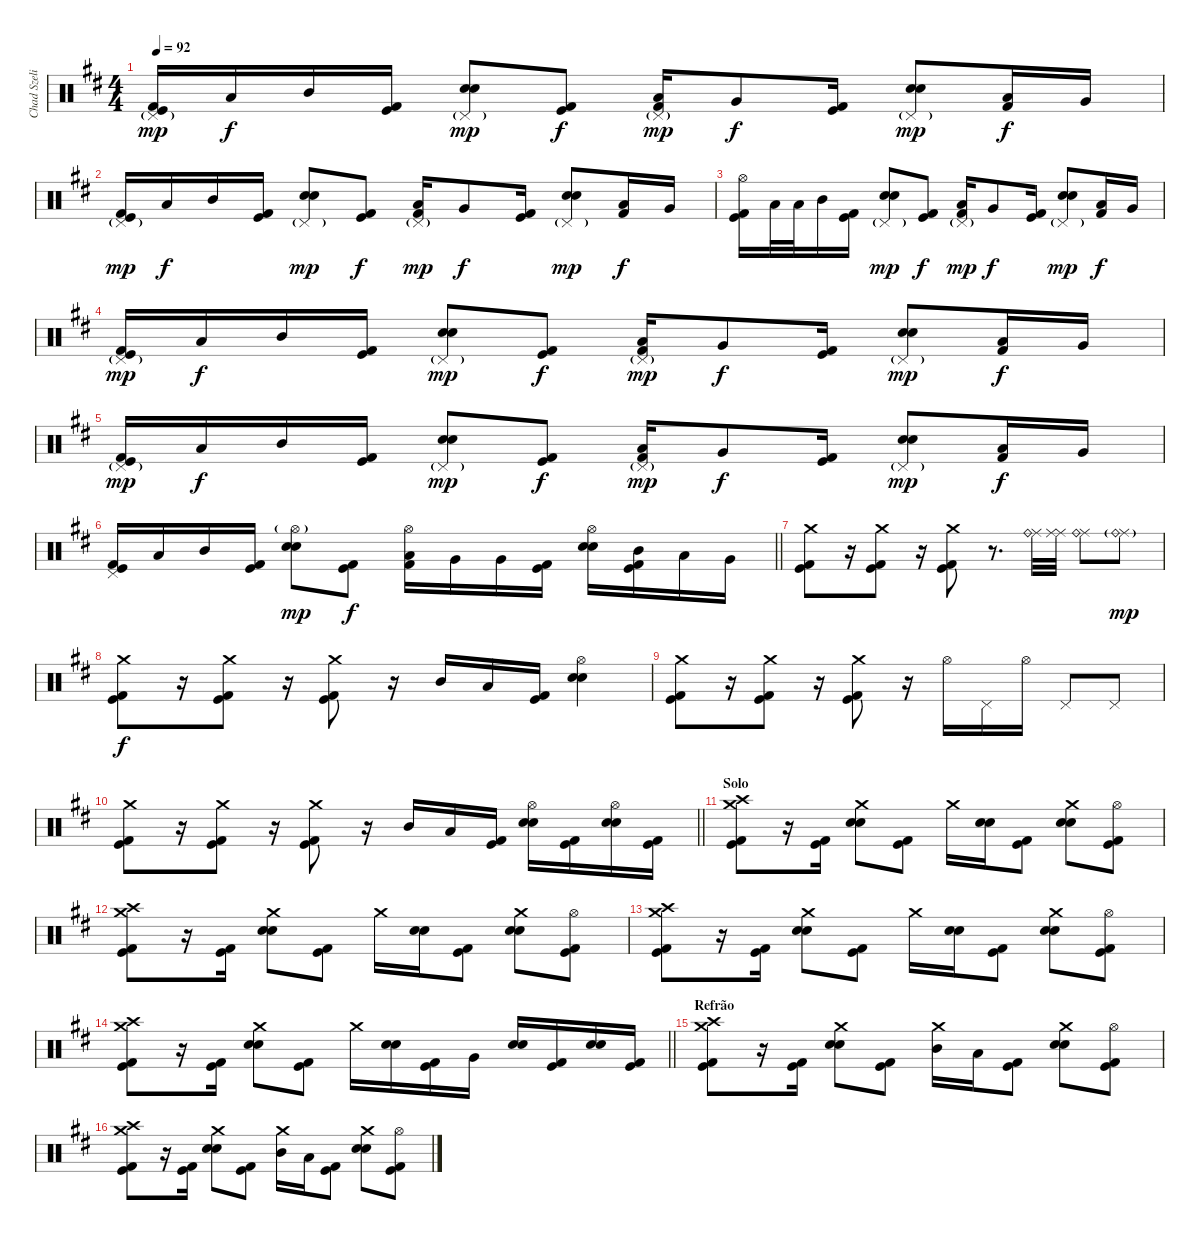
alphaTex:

\track ("Chad Szeliga" "Chad Szeli") {instrument percussion}
\staff {score}
\articulation defaults
\ts (4 4)
\tempo 92
\clef neutral
\ks d
("Kick (hit) 2" "Kick (hit)" "Pedal Hi-Hat (hit)"{g}).16{dy mp} "Low Tom (hit)".16{dy f} "Mid Tom (hit)".16 ("Kick (hit) 2" "Kick (hit)").16 ("Snare (hit) 2" "Snare (hit) 2" "Pedal Hi-Hat (hit)"{g}).8{dy mp} ("Kick (hit) 2" "Kick (hit)").8{dy f} ("Kick (hit) 2" "Low Tom (hit)" "Pedal Hi-Hat (hit)"{g}).16{dy mp} "Very Low Tom (hit)".8{dy f} ("Kick (hit) 2" "Kick (hit)").16 ("Snare (hit) 2" "Snare (hit) 2" "Pedal Hi-Hat (hit)"{g}).8{dy mp} ("Kick (hit) 2" "Low Tom (hit)").16{dy f} "Very Low Tom (hit)".16 |
("Kick (hit) 2" "Kick (hit)" "Pedal Hi-Hat (hit)"{g}).16{dy mp} "Low Tom (hit)".16{dy f} "Mid Tom (hit)".16 ("Kick (hit) 2" "Kick (hit)").16 ("Snare (hit) 2" "Snare (hit) 2" "Pedal Hi-Hat (hit)"{g}).8{dy mp} ("Kick (hit) 2" "Kick (hit)").8{dy f} ("Kick (hit) 2" "Low Tom (hit)" "Pedal Hi-Hat (hit)"{g}).16{dy mp} "Very Low Tom (hit)".8{dy f} ("Kick (hit) 2" "Kick (hit)").16 ("Snare (hit) 2" "Snare (hit) 2" "Pedal Hi-Hat (hit)"{g}).8{dy mp} ("Kick (hit) 2" "Low Tom (hit)").16{dy f} "Very Low Tom (hit)".16 |
("Kick (hit) 2" "Kick (hit)" "Hi-Hat (open)").16 "Low Tom (hit)".32 "Low Tom (hit)".32 "Mid Tom (hit)".16 ("Kick (hit) 2" "Kick (hit)").16 ("Snare (hit) 2" "Snare (hit) 2" "Pedal Hi-Hat (hit)"{g}).8{dy mp} ("Kick (hit) 2" "Kick (hit)").8{dy f} ("Kick (hit) 2" "Low Tom (hit)" "Pedal Hi-Hat (hit)"{g}).16{dy mp} "Very Low Tom (hit)".8{dy f} ("Kick (hit) 2" "Kick (hit)").16 ("Snare (hit) 2" "Snare (hit) 2" "Pedal Hi-Hat (hit)"{g}).8{dy mp} ("Kick (hit) 2" "Low Tom (hit)").16{dy f} "Very Low Tom (hit)".16 |
("Kick (hit) 2" "Kick (hit)" "Pedal Hi-Hat (hit)"{g}).16{dy mp} "Low Tom (hit)".16{dy f} "Mid Tom (hit)".16 ("Kick (hit) 2" "Kick (hit)").16 ("Snare (hit) 2" "Snare (hit) 2" "Pedal Hi-Hat (hit)"{g}).8{dy mp} ("Kick (hit) 2" "Kick (hit)").8{dy f} ("Kick (hit) 2" "Low Tom (hit)" "Pedal Hi-Hat (hit)"{g}).16{dy mp} "Very Low Tom (hit)".8{dy f} ("Kick (hit) 2" "Kick (hit)").16 ("Snare (hit) 2" "Snare (hit) 2" "Pedal Hi-Hat (hit)"{g}).8{dy mp} ("Kick (hit) 2" "Low Tom (hit)").16{dy f} "Very Low Tom (hit)".16 |
("Kick (hit) 2" "Kick (hit)" "Pedal Hi-Hat (hit)"{g}).16{dy mp} "Low Tom (hit)".16{dy f} "Mid Tom (hit)".16 ("Kick (hit) 2" "Kick (hit)").16 ("Snare (hit) 2" "Snare (hit) 2" "Pedal Hi-Hat (hit)"{g}).8{dy mp} ("Kick (hit) 2" "Kick (hit)").8{dy f} ("Kick (hit) 2" "Low Tom (hit)" "Pedal Hi-Hat (hit)"{g}).16{dy mp} "Very Low Tom (hit)".8{dy f} ("Kick (hit) 2" "Kick (hit)").16 ("Snare (hit) 2" "Snare (hit) 2" "Pedal Hi-Hat (hit)"{g}).8{dy mp} ("Kick (hit) 2" "Low Tom (hit)").16{dy f} "Very Low Tom (hit)".16 |
\barLineRight lightlight
("Kick (hit) 2" "Kick (hit)" "Pedal Hi-Hat (hit)").16 "Low Tom (hit)".16 "Mid Tom (hit)".16 ("Kick (hit) 2" "Kick (hit)").16 ("Snare (hit) 2" "Snare (hit) 2" "Hi-Hat (open)"{g}).8{dy mp} ("Kick (hit) 2" "Kick (hit)").8{dy f} ("Kick (hit) 2" "Low Tom (hit)" "Hi-Hat (open)").16 "Very Low Tom (hit)".16 "Very Low Tom (hit)".16 ("Kick (hit) 2" "Kick (hit)").16 ("Snare (hit) 2" "Snare (hit) 2" "Hi-Hat (open)").16 ("Kick (hit) 2" "Kick (hit)" "Mid Tom (hit)").16 "Low Tom (hit)".16 "Very Low Tom (hit)".16 |
("Crash medium (hit)" "Kick (hit) 2" "Kick (hit)").8 r.16 ("Crash medium (hit)" "Kick (hit) 2" "Kick (hit)").8 r.16 ("Crash medium (hit)" "Kick (hit) 2" "Kick (hit)").8 r.8{d} ("Ride (middle)" "Ride (bell)").32 ("Ride (middle)" "Ride (middle)").32 ("Ride (middle)" "Ride (bell)").8 ("Ride (middle)" "Ride (bell)"{g}).8{dy mp} |
("Crash medium (hit)" "Kick (hit) 2" "Kick (hit)").8{dy f} r.16 ("Crash medium (hit)" "Kick (hit) 2" "Kick (hit)").8 r.16 ("Crash medium (hit)" "Kick (hit) 2" "Kick (hit)").8 r.16 "Mid Tom (hit)".16 "Low Tom (hit)".16 ("Kick (hit) 2" "Kick (hit)").16 ("Snare (hit) 2" "Snare (hit) 2" "Hi-Hat (open)").4 |
("Crash medium (hit)" "Kick (hit) 2" "Kick (hit)").8 r.16 ("Crash medium (hit)" "Kick (hit) 2" "Kick (hit)").8 r.16 ("Crash medium (hit)" "Kick (hit) 2" "Kick (hit)").8 r.16 "Hi-Hat (open)".16 "Pedal Hi-Hat (hit)".16 "Hi-Hat (open)".16 "Pedal Hi-Hat (hit)".8 "Pedal Hi-Hat (hit)".8 |
\barLineRight lightlight
("Crash medium (hit)" "Kick (hit) 2" "Kick (hit)").8 r.16 ("Crash medium (hit)" "Kick (hit) 2" "Kick (hit)").8 r.16 ("Crash medium (hit)" "Kick (hit) 2" "Kick (hit)").8 r.16 "Mid Tom (hit)".16 "Low Tom (hit)".16 ("Kick (hit) 2" "Kick (hit)").16 ("Snare (hit) 2" "Snare (hit) 2" "Hi-Hat (open)").16 ("Kick (hit) 2" "Kick (hit)").16 ("Snare (hit) 2" "Snare (hit) 2" "Hi-Hat (open)").16 ("Kick (hit) 2" "Kick (hit)").16 |
\section ("" "Solo")
("Crash high (hit)" "Kick (hit) 2" "Kick (hit)" "Crash medium (hit)").8 r.16 ("Kick (hit) 2" "Kick (hit)").16{beam Down} ("Crash medium (hit)" "Snare (hit) 2" "Snare (hit) 2").8 ("Kick (hit) 2" "Kick (hit)").8 "Crash medium (hit)".16 ("Snare (hit) 2" "Snare (hit) 2").16 ("Kick (hit) 2" "Kick (hit)").8 ("Crash medium (hit)" "Snare (hit) 2" "Snare (hit) 2").8 ("Kick (hit) 2" "Kick (hit)" "Hi-Hat (open)").8 |
("Crash high (hit)" "Kick (hit) 2" "Kick (hit)" "Crash medium (hit)").8 r.16 ("Kick (hit) 2" "Kick (hit)").16{beam Down} ("Crash medium (hit)" "Snare (hit) 2" "Snare (hit) 2").8 ("Kick (hit) 2" "Kick (hit)").8 "Crash medium (hit)".16 ("Snare (hit) 2" "Snare (hit) 2").16 ("Kick (hit) 2" "Kick (hit)").8 ("Crash medium (hit)" "Snare (hit) 2" "Snare (hit) 2").8 ("Kick (hit) 2" "Kick (hit)" "Hi-Hat (open)").8 |
("Crash high (hit)" "Kick (hit) 2" "Kick (hit)" "Crash medium (hit)").8 r.16 ("Kick (hit) 2" "Kick (hit)").16{beam Down} ("Crash medium (hit)" "Snare (hit) 2" "Snare (hit) 2").8 ("Kick (hit) 2" "Kick (hit)").8 "Crash medium (hit)".16 ("Snare (hit) 2" "Snare (hit) 2").16 ("Kick (hit) 2" "Kick (hit)").8 ("Crash medium (hit)" "Snare (hit) 2" "Snare (hit) 2").8 ("Kick (hit) 2" "Kick (hit)" "Hi-Hat (open)").8 |
\barLineRight lightlight
("Crash high (hit)" "Kick (hit) 2" "Kick (hit)" "Crash medium (hit)").8 r.16 ("Kick (hit) 2" "Kick (hit)").16{beam Down} ("Crash medium (hit)" "Snare (hit) 2" "Snare (hit) 2").8 ("Kick (hit) 2" "Kick (hit)").8 "Crash medium (hit)".16 ("Snare (hit) 2" "Snare (hit) 2").16 ("Kick (hit) 2" "Kick (hit)").16 "Very Low Tom (hit)".16 ("Snare (hit) 2" "Snare (hit) 2").16 ("Kick (hit) 2" "Kick (hit)").16 ("Snare (hit) 2" "Snare (hit) 2").16 ("Kick (hit) 2" "Kick (hit)").16 |
\section ("" "Refrão")
("Crash high (hit)" "Kick (hit) 2" "Kick (hit)" "Crash medium (hit)").8 r.16 ("Kick (hit) 2" "Kick (hit)").16{beam Down} ("Crash medium (hit)" "Snare (hit) 2" "Snare (hit) 2").8 ("Kick (hit) 2" "Kick (hit)").8 ("Crash medium (hit)" "Mid Tom (hit)").16 "Low Tom (hit)".16 ("Kick (hit) 2" "Kick (hit)").8 ("Crash medium (hit)" "Snare (hit) 2" "Snare (hit) 2").8 ("Kick (hit) 2" "Kick (hit)" "Hi-Hat (open)").8 |
("Crash high (hit)" "Kick (hit) 2" "Kick (hit)" "Crash medium (hit)").8 r.16 ("Kick (hit) 2" "Kick (hit)").16{beam Down} ("Crash medium (hit)" "Snare (hit) 2" "Snare (hit) 2").8 ("Kick (hit) 2" "Kick (hit)").8 ("Crash medium (hit)" "Mid Tom (hit)").16 "Low Tom (hit)".16 ("Kick (hit) 2" "Kick (hit)").8 ("Crash medium (hit)" "Snare (hit) 2" "Snare (hit) 2").8 ("Kick (hit) 2" "Kick (hit)" "Hi-Hat (open)").8
